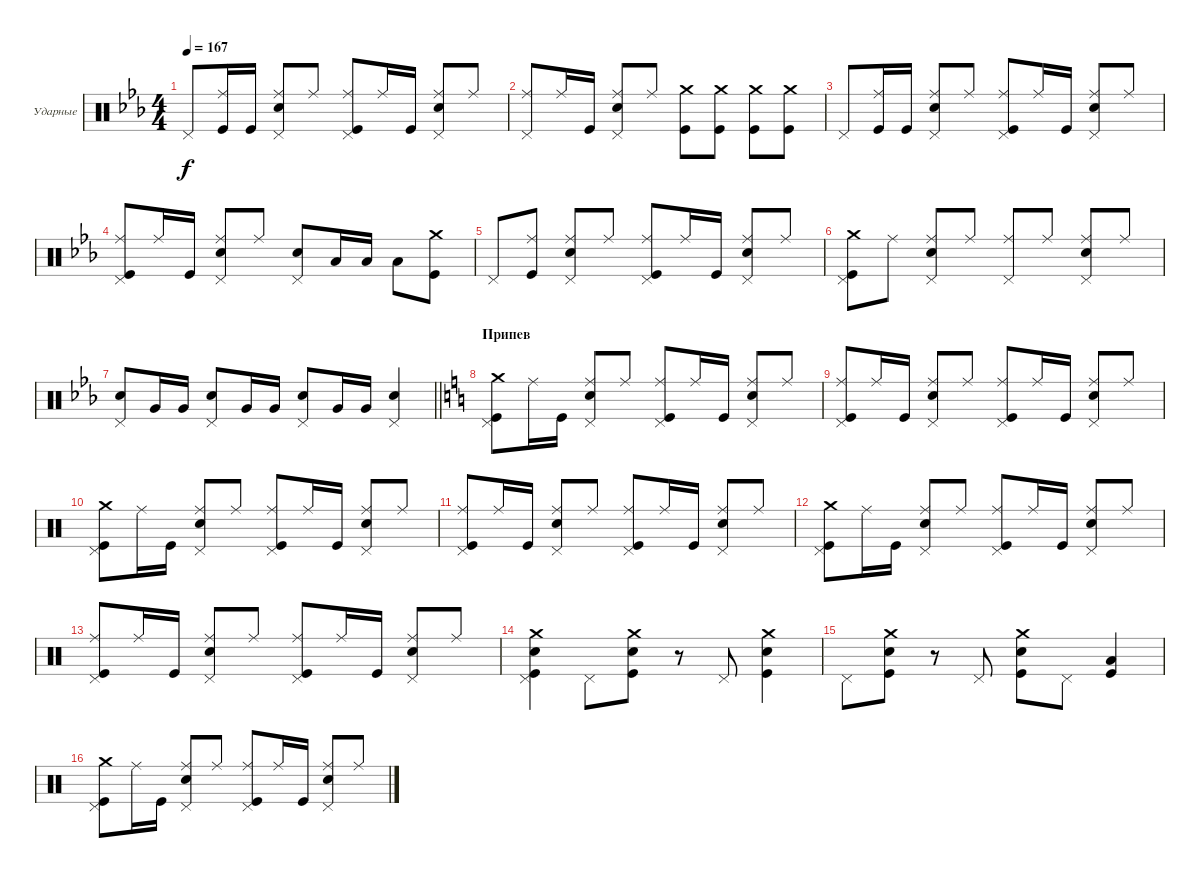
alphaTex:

\bracketExtendMode groupsimilarinstruments
\firstSystemTrackNameOrientation horizontal
\otherSystemsTrackNameOrientation horizontal
\track ("Максим Удалов" "Ударные") {instrument percussion}
\staff {score}
\articulation defaults
\ts (4 4)
\tempo 167
\clef neutral
\ks cminor "Pedal Hi-Hat (hit)".8{dy f}
("Ride (middle)" "Kick (hit)").16 "Kick (hit)".16 ("Ride (middle)" "Snare (hit) 2" "Pedal Hi-Hat (hit)").8 "Ride (middle)".8 ("Ride (middle)" "Kick (hit)" "Pedal Hi-Hat (hit)").8 "Ride (middle)".16 "Kick (hit)".16 ("Ride (middle)" "Snare (hit) 2" "Pedal Hi-Hat (hit)").8 "Ride (middle)".8 |
("Pedal Hi-Hat (hit)" "Ride (middle)").8 "Ride (middle)".16 "Kick (hit)".16 ("Ride (middle)" "Snare (hit) 2" "Pedal Hi-Hat (hit)").8 "Ride (middle)".8 ("Kick (hit)" "Crash medium (hit)").8 ("Crash medium (hit)" "Kick (hit)").8 ("Crash medium (hit)" "Kick (hit)").8 ("Crash medium (hit)" "Kick (hit)").8 |
"Pedal Hi-Hat (hit)".8 ("Ride (middle)" "Kick (hit)").16 "Kick (hit)".16 ("Ride (middle)" "Snare (hit) 2" "Pedal Hi-Hat (hit)").8 "Ride (middle)".8 ("Ride (middle)" "Kick (hit)" "Pedal Hi-Hat (hit)").8 "Ride (middle)".16 "Kick (hit)".16 ("Ride (middle)" "Snare (hit) 2" "Pedal Hi-Hat (hit)").8 "Ride (middle)".8 |
("Ride (middle)" "Kick (hit)" "Pedal Hi-Hat (hit)").8 "Ride (middle)".16 "Kick (hit)".16 ("Ride (middle)" "Snare (hit) 2" "Pedal Hi-Hat (hit)").8 "Ride (middle)".8 ("Pedal Hi-Hat (hit)" "Snare (hit) 2").8 "Low Tom (hit)".16 "Low Tom (hit)".16 "Low Tom (hit)".8 ("Crash medium (hit)" "Kick (hit)").8 |
"Pedal Hi-Hat (hit)".8 ("Ride (middle)" "Kick (hit)").8 ("Ride (middle)" "Snare (hit) 2" "Pedal Hi-Hat (hit)").8 "Ride (middle)".8 ("Ride (middle)" "Kick (hit)" "Pedal Hi-Hat (hit)").8 "Ride (middle)".16 "Kick (hit)".16 ("Ride (middle)" "Snare (hit) 2" "Pedal Hi-Hat (hit)").8 "Ride (middle)".8 |
("Pedal Hi-Hat (hit)" "Crash medium (hit)" "Kick (hit)").8 "Ride (middle)".8 ("Ride (middle)" "Snare (hit) 2" "Pedal Hi-Hat (hit)").8 "Ride (middle)".8 ("Pedal Hi-Hat (hit)" "Ride (middle)").8 "Ride (middle)".8 ("Ride (middle)" "Snare (hit) 2" "Pedal Hi-Hat (hit)").8 "Ride (middle)".8 |
\barLineRight lightlight
("Pedal Hi-Hat (hit)" "Snare (hit) 2").8 "Very Low Tom (hit)".16 "Very Low Tom (hit)".16 ("Snare (hit) 2" "Pedal Hi-Hat (hit)").8 "Very Low Tom (hit)".16 "Very Low Tom (hit)".16 ("Snare (hit) 2" "Pedal Hi-Hat (hit)").8 "Very Low Tom (hit)".16 "Very Low Tom (hit)".16 ("Snare (hit) 2" "Pedal Hi-Hat (hit)").4 |
\section ("" "Припев")
\ks aminor
("Kick (hit)" "Pedal Hi-Hat (hit)" "Crash medium (hit)").8 "Ride (middle)".16 "Kick (hit)".16 ("Ride (middle)" "Snare (hit) 2" "Pedal Hi-Hat (hit)").8 "Ride (middle)".8 ("Ride (middle)" "Kick (hit)" "Pedal Hi-Hat (hit)").8 "Ride (middle)".16 "Kick (hit)".16 ("Ride (middle)" "Snare (hit) 2" "Pedal Hi-Hat (hit)").8 "Ride (middle)".8 |
("Kick (hit)" "Ride (middle)" "Pedal Hi-Hat (hit)").8 "Ride (middle)".16 "Kick (hit)".16 ("Snare (hit) 2" "Ride (middle)" "Pedal Hi-Hat (hit)").8 "Ride (middle)".8 ("Ride (middle)" "Kick (hit)" "Pedal Hi-Hat (hit)").8 "Ride (middle)".16 "Kick (hit)".16 ("Snare (hit) 2" "Ride (middle)" "Pedal Hi-Hat (hit)").8 "Ride (middle)".8 |
("Kick (hit)" "Pedal Hi-Hat (hit)" "Crash medium (hit)").8 "Ride (middle)".16 "Kick (hit)".16 ("Ride (middle)" "Snare (hit) 2" "Pedal Hi-Hat (hit)").8 "Ride (middle)".8 ("Ride (middle)" "Kick (hit)" "Pedal Hi-Hat (hit)").8 "Ride (middle)".16 "Kick (hit)".16 ("Ride (middle)" "Snare (hit) 2" "Pedal Hi-Hat (hit)").8 "Ride (middle)".8 |
("Kick (hit)" "Ride (middle)" "Pedal Hi-Hat (hit)").8 "Ride (middle)".16 "Kick (hit)".16 ("Snare (hit) 2" "Ride (middle)" "Pedal Hi-Hat (hit)").8 "Ride (middle)".8 ("Ride (middle)" "Kick (hit)" "Pedal Hi-Hat (hit)").8 "Ride (middle)".16 "Kick (hit)".16 ("Snare (hit) 2" "Ride (middle)" "Pedal Hi-Hat (hit)").8 "Ride (middle)".8 |
("Kick (hit)" "Pedal Hi-Hat (hit)" "Crash medium (hit)").8 "Ride (middle)".16 "Kick (hit)".16 ("Ride (middle)" "Snare (hit) 2" "Pedal Hi-Hat (hit)").8 "Ride (middle)".8 ("Ride (middle)" "Kick (hit)" "Pedal Hi-Hat (hit)").8 "Ride (middle)".16 "Kick (hit)".16 ("Ride (middle)" "Snare (hit) 2" "Pedal Hi-Hat (hit)").8 "Ride (middle)".8 |
("Kick (hit)" "Ride (middle)" "Pedal Hi-Hat (hit)").8 "Ride (middle)".16 "Kick (hit)".16 ("Snare (hit) 2" "Ride (middle)" "Pedal Hi-Hat (hit)").8 "Ride (middle)".8 ("Ride (middle)" "Kick (hit)" "Pedal Hi-Hat (hit)").8 "Ride (middle)".16 "Kick (hit)".16 ("Snare (hit) 2" "Ride (middle)" "Pedal Hi-Hat (hit)").8 "Ride (middle)".8 |
("Snare (hit) 2" "Crash medium (hit)" "Kick (hit)" "Pedal Hi-Hat (hit)").4 "Pedal Hi-Hat (hit)".8 ("Crash medium (hit)" "Kick (hit)" "Snare (hit) 2").8 r.8 "Pedal Hi-Hat (hit)".8 ("Crash medium (hit)" "Snare (hit) 2" "Kick (hit)").4 |
"Pedal Hi-Hat (hit)".8 ("Crash medium (hit)" "Kick (hit)" "Snare (hit) 2").8 r.8 "Pedal Hi-Hat (hit)".8 ("Kick (hit)" "Snare (hit) 2" "Crash medium (hit)").8 "Pedal Hi-Hat (hit)".8 ("Kick (hit)" "Low Tom (hit)").4 |
("Kick (hit)" "Pedal Hi-Hat (hit)" "Crash medium (hit)").8 "Ride (middle)".16 "Kick (hit)".16 ("Ride (middle)" "Snare (hit) 2" "Pedal Hi-Hat (hit)").8 "Ride (middle)".8 ("Ride (middle)" "Kick (hit)" "Pedal Hi-Hat (hit)").8 "Ride (middle)".16 "Kick (hit)".16 ("Ride (middle)" "Snare (hit) 2" "Pedal Hi-Hat (hit)").8 "Ride (middle)".8
